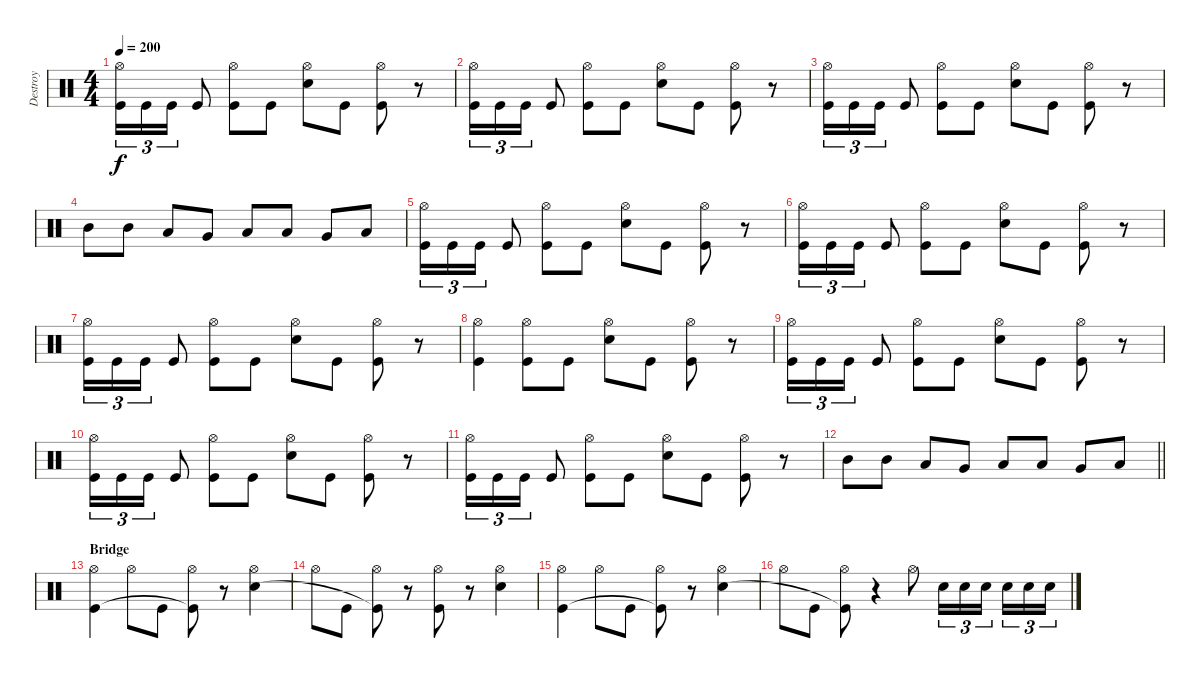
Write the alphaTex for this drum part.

\track ("Destroy" "Destroy") {instrument percussion}
\staff {score}
\articulation defaults
\ts (4 4)
\tempo 200
\clef neutral
\ks c
("Hi-Hat (open)" "Kick (hit)").16{tu (3 2) dy f} "Kick (hit)".16{tu (3 2)} "Kick (hit)".16{tu (3 2)} "Kick (hit)".8 ("Hi-Hat (open)" "Kick (hit)").8 "Kick (hit)".8 ("Hi-Hat (open)" "Snare (hit) 2").8 "Kick (hit)".8 ("Hi-Hat (open)" "Kick (hit)").8 r.8 |
("Hi-Hat (open)" "Kick (hit)").16{tu (3 2)} "Kick (hit)".16{tu (3 2)} "Kick (hit)".16{tu (3 2)} "Kick (hit)".8 ("Hi-Hat (open)" "Kick (hit)").8 "Kick (hit)".8 ("Hi-Hat (open)" "Snare (hit) 2").8 "Kick (hit)".8 ("Hi-Hat (open)" "Kick (hit)").8 r.8 |
("Hi-Hat (open)" "Kick (hit)").16{tu (3 2)} "Kick (hit)".16{tu (3 2)} "Kick (hit)".16{tu (3 2)} "Kick (hit)".8 ("Hi-Hat (open)" "Kick (hit)").8 "Kick (hit)".8 ("Hi-Hat (open)" "Snare (hit) 2").8 "Kick (hit)".8 ("Hi-Hat (open)" "Kick (hit)").8 r.8 |
"Mid Tom (hit)".8 "Mid Tom (hit)".8 "Low Tom (hit)".8 "Very Low Tom (hit)".8 "Low Tom (hit)".8 "Low Tom (hit)".8 "Very Low Tom (hit)".8 "Low Floor Tom (hit)".8 |
("Hi-Hat (open)" "Kick (hit)").16{tu (3 2)} "Kick (hit)".16{tu (3 2)} "Kick (hit)".16{tu (3 2)} "Kick (hit)".8 ("Hi-Hat (open)" "Kick (hit)").8 "Kick (hit)".8 ("Hi-Hat (open)" "Snare (hit) 2").8 "Kick (hit)".8 ("Hi-Hat (open)" "Kick (hit)").8 r.8 |
("Hi-Hat (open)" "Kick (hit)").16{tu (3 2)} "Kick (hit)".16{tu (3 2)} "Kick (hit)".16{tu (3 2)} "Kick (hit)".8 ("Hi-Hat (open)" "Kick (hit)").8 "Kick (hit)".8 ("Hi-Hat (open)" "Snare (hit) 2").8 "Kick (hit)".8 ("Hi-Hat (open)" "Kick (hit)").8 r.8 |
("Hi-Hat (open)" "Kick (hit)").16{tu (3 2)} "Kick (hit)".16{tu (3 2)} "Kick (hit)".16{tu (3 2)} "Kick (hit)".8 ("Hi-Hat (open)" "Kick (hit)").8 "Kick (hit)".8 ("Hi-Hat (open)" "Snare (hit) 2").8 "Kick (hit)".8 ("Hi-Hat (open)" "Kick (hit)").8 r.8 |
("Hi-Hat (open)" "Kick (hit)").4 ("Hi-Hat (open)" "Kick (hit)").8 "Kick (hit)".8 ("Hi-Hat (open)" "Snare (hit) 2").8 "Kick (hit)".8 ("Hi-Hat (open)" "Kick (hit)").8 r.8 |
("Hi-Hat (open)" "Kick (hit)").16{tu (3 2)} "Kick (hit)".16{tu (3 2)} "Kick (hit)".16{tu (3 2)} "Kick (hit)".8 ("Hi-Hat (open)" "Kick (hit)").8 "Kick (hit)".8 ("Hi-Hat (open)" "Snare (hit) 2").8 "Kick (hit)".8 ("Hi-Hat (open)" "Kick (hit)").8 r.8 |
("Hi-Hat (open)" "Kick (hit)").16{tu (3 2)} "Kick (hit)".16{tu (3 2)} "Kick (hit)".16{tu (3 2)} "Kick (hit)".8 ("Hi-Hat (open)" "Kick (hit)").8 "Kick (hit)".8 ("Hi-Hat (open)" "Snare (hit) 2").8 "Kick (hit)".8 ("Hi-Hat (open)" "Kick (hit)").8 r.8 |
("Hi-Hat (open)" "Kick (hit)").16{tu (3 2)} "Kick (hit)".16{tu (3 2)} "Kick (hit)".16{tu (3 2)} "Kick (hit)".8 ("Hi-Hat (open)" "Kick (hit)").8 "Kick (hit)".8 ("Hi-Hat (open)" "Snare (hit) 2").8 "Kick (hit)".8 ("Hi-Hat (open)" "Kick (hit)").8 r.8 |
\barLineRight lightlight "Mid Tom (hit)".8 "Mid Tom (hit)".8 "Low Tom (hit)".8 "Very Low Tom (hit)".8 "Low Tom (hit)".8 "Low Tom (hit)".8 "Very Low Tom (hit)".8 "Low Floor Tom (hit)".8
|
\section ("" "Bridge")
("Hi-Hat (open)" "Kick (hit)").4 "Hi-Hat (open)".8 "Kick (hit)".8 ("Hi-Hat (open)" "Kick (hit)"{t}).8 r.8 ("Hi-Hat (open)" "Snare (hit) 2").4 |
"Hi-Hat (open)".8 "Kick (hit)".8 ("Hi-Hat (open)" "Kick (hit)"{t}).8 r.8 ("Hi-Hat (open)" "Kick (hit)").8 r.8 ("Hi-Hat (open)" "Snare (hit) 2").4 |
("Hi-Hat (open)" "Kick (hit)").4 "Hi-Hat (open)".8 "Kick (hit)".8 ("Hi-Hat (open)" "Kick (hit)"{t}).8 r.8 ("Hi-Hat (open)" "Snare (hit) 2").4 |
"Hi-Hat (open)".8 "Kick (hit)".8 ("Hi-Hat (open)" "Kick (hit)"{t}).8 r.4 "Hi-Hat (open)".8 "Snare (hit) 2".16{tu (3 2)} "Snare (hit) 2".16{tu (3 2)} "Snare (hit) 2".16{tu (3 2) beam splitsecondary} "Snare (hit) 2".16{tu (3 2)} "Snare (hit) 2".16{tu (3 2)} "Snare (hit) 2".16{tu (3 2)}
